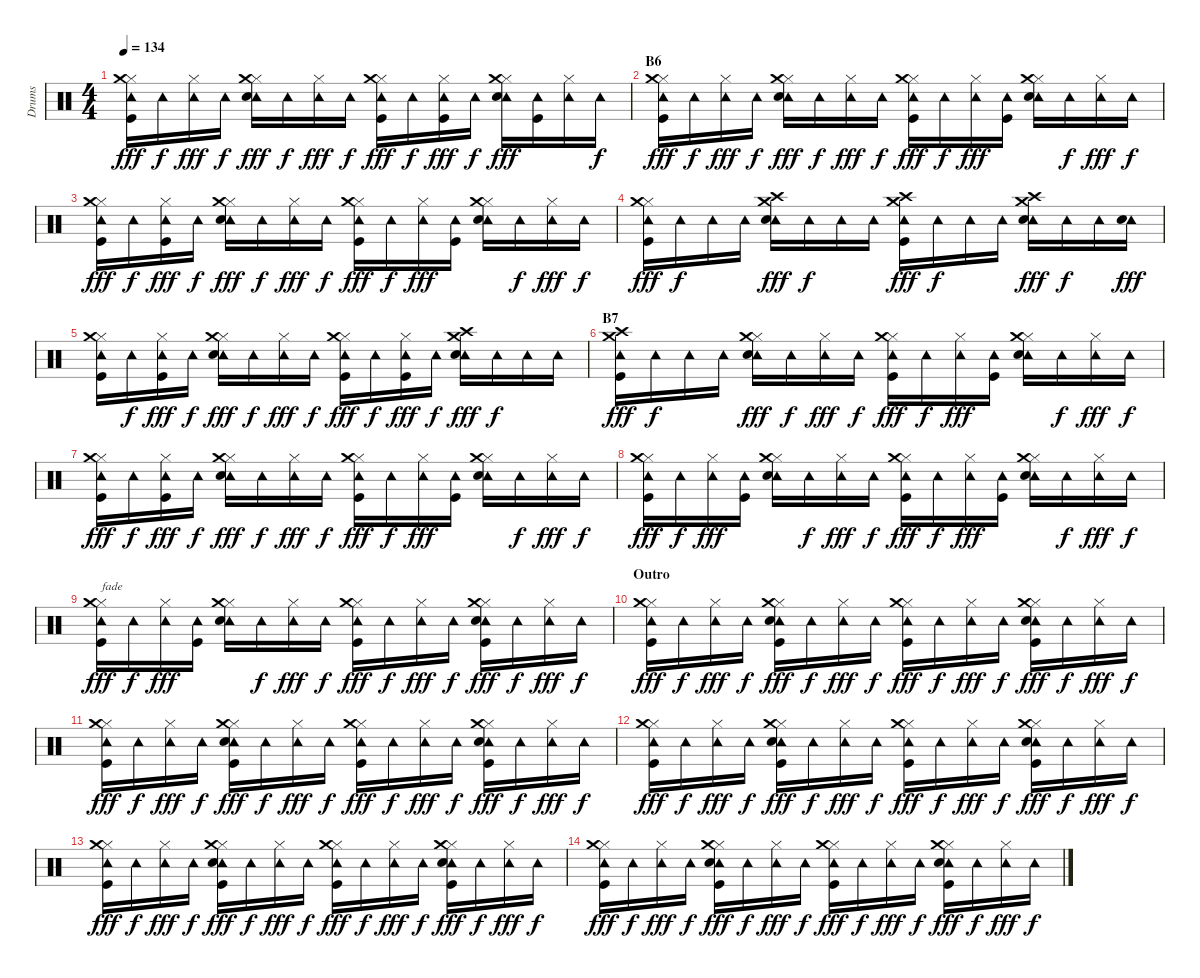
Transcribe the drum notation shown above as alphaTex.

\track ("Drums" "Drums") {instrument percussion}
\staff {score}
\articulation defaults
\ts (4 4)
\tempo 134
\clef neutral
\ks c
("Hi-Hat (closed)" "Tambourine (hit)" "Crash medium (hit)" "Kick (hit)").16{dy fff} "Tambourine (hit)".16{dy f} ("Hi-Hat (closed)" "Tambourine (hit)").16{dy fff} "Tambourine (hit)".16{dy f} ("Hi-Hat (closed)" "Tambourine (hit)" "Crash medium (hit)" "Snare (hit) 2").16{dy fff} "Tambourine (hit)".16{dy f} ("Hi-Hat (closed)" "Tambourine (hit)").16{dy fff} "Tambourine (hit)".16{dy f} ("Hi-Hat (closed)" "Tambourine (hit)" "Crash medium (hit)" "Kick (hit)").16{dy fff} "Tambourine (hit)".16{dy f} ("Hi-Hat (closed)" "Tambourine (hit)" "Kick (hit)").16{dy fff} "Tambourine (hit)".16{dy f} ("Hi-Hat (closed)" "Tambourine (hit)" "Crash medium (hit)" "Snare (hit) 2").16{dy fff} ("Tambourine (hit)" "Kick (hit)").16 ("Hi-Hat (closed)" "Tambourine (hit)").16 "Tambourine (hit)".16{dy f} |
\section ("" "B6")
("Hi-Hat (closed)" "Tambourine (hit)" "Crash medium (hit)" "Kick (hit)").16{dy fff} "Tambourine (hit)".16{dy f} ("Hi-Hat (closed)" "Tambourine (hit)").16{dy fff} "Tambourine (hit)".16{dy f} ("Hi-Hat (closed)" "Tambourine (hit)" "Crash medium (hit)" "Snare (hit) 2").16{dy fff} "Tambourine (hit)".16{dy f} ("Hi-Hat (closed)" "Tambourine (hit)").16{dy fff} "Tambourine (hit)".16{dy f} ("Hi-Hat (closed)" "Tambourine (hit)" "Crash medium (hit)" "Kick (hit)").16{dy fff} "Tambourine (hit)".16{dy f} ("Hi-Hat (closed)" "Tambourine (hit)").16{dy fff} ("Tambourine (hit)" "Kick (hit)").16 ("Hi-Hat (closed)" "Tambourine (hit)" "Crash medium (hit)" "Snare (hit) 2").16 "Tambourine (hit)".16{dy f} ("Hi-Hat (closed)" "Tambourine (hit)").16{dy fff} "Tambourine (hit)".16{dy f} |
("Hi-Hat (closed)" "Tambourine (hit)" "Crash medium (hit)" "Kick (hit)").16{dy fff} "Tambourine (hit)".16{dy f} ("Hi-Hat (closed)" "Tambourine (hit)" "Kick (hit)").16{dy fff} "Tambourine (hit)".16{dy f} ("Hi-Hat (closed)" "Tambourine (hit)" "Crash medium (hit)" "Snare (hit) 2").16{dy fff} "Tambourine (hit)".16{dy f} ("Hi-Hat (closed)" "Tambourine (hit)").16{dy fff} "Tambourine (hit)".16{dy f} ("Hi-Hat (closed)" "Tambourine (hit)" "Crash medium (hit)" "Kick (hit)").16{dy fff} "Tambourine (hit)".16{dy f} ("Hi-Hat (closed)" "Tambourine (hit)").16{dy fff} ("Tambourine (hit)" "Kick (hit)").16 ("Hi-Hat (closed)" "Tambourine (hit)" "Crash medium (hit)" "Snare (hit) 2").16 "Tambourine (hit)".16{dy f} ("Hi-Hat (closed)" "Tambourine (hit)").16{dy fff} "Tambourine (hit)".16{dy f} |
("Hi-Hat (closed)" "Tambourine (hit)" "Crash medium (hit)" "Kick (hit)").16{dy fff} "Tambourine (hit)".16{dy f} "Tambourine (hit)".16 "Tambourine (hit)".16 ("Crash high (hit)" "Tambourine (hit)" "Crash medium (hit)" "Snare (hit) 2").16{dy fff} "Tambourine (hit)".16{dy f} "Tambourine (hit)".16 "Tambourine (hit)".16 ("Crash high (hit)" "Tambourine (hit)" "Crash medium (hit)" "Kick (hit)").16{dy fff} "Tambourine (hit)".16{dy f} "Tambourine (hit)".16 "Tambourine (hit)".16 ("Crash high (hit)" "Tambourine (hit)" "Crash medium (hit)" "Snare (hit) 2").16{dy fff} "Tambourine (hit)".16{dy f} "Tambourine (hit)".16 ("Tambourine (hit)" "Snare (hit) 2").16{dy fff} |
("Hi-Hat (closed)" "Tambourine (hit)" "Crash medium (hit)" "Kick (hit)").16 "Tambourine (hit)".16{dy f} ("Hi-Hat (closed)" "Tambourine (hit)" "Kick (hit)").16{dy fff} "Tambourine (hit)".16{dy f} ("Hi-Hat (closed)" "Tambourine (hit)" "Crash medium (hit)" "Snare (hit) 2").16{dy fff} "Tambourine (hit)".16{dy f} ("Hi-Hat (closed)" "Tambourine (hit)").16{dy fff} "Tambourine (hit)".16{dy f} ("Hi-Hat (closed)" "Tambourine (hit)" "Crash medium (hit)" "Kick (hit)").16{dy fff} "Tambourine (hit)".16{dy f} ("Hi-Hat (closed)" "Tambourine (hit)" "Kick (hit)").16{dy fff} "Tambourine (hit)".16{dy f} ("Crash high (hit)" "Tambourine (hit)" "Crash medium (hit)" "Snare (hit) 2").16{dy fff} "Tambourine (hit)".16{dy f} "Tambourine (hit)".16 "Tambourine (hit)".16 |
\section ("" "B7")
("Crash high (hit)" "Tambourine (hit)" "Crash medium (hit)" "Kick (hit)").16{dy fff} "Tambourine (hit)".16{dy f} "Tambourine (hit)".16 "Tambourine (hit)".16 ("Hi-Hat (closed)" "Tambourine (hit)" "Crash medium (hit)" "Snare (hit) 2").16{dy fff} "Tambourine (hit)".16{dy f} ("Hi-Hat (closed)" "Tambourine (hit)").16{dy fff} "Tambourine (hit)".16{dy f} ("Hi-Hat (closed)" "Tambourine (hit)" "Crash medium (hit)" "Kick (hit)").16{dy fff} "Tambourine (hit)".16{dy f} ("Hi-Hat (closed)" "Tambourine (hit)").16{dy fff} ("Tambourine (hit)" "Kick (hit)").16 ("Hi-Hat (closed)" "Tambourine (hit)" "Crash medium (hit)" "Snare (hit) 2").16 "Tambourine (hit)".16{dy f} ("Hi-Hat (closed)" "Tambourine (hit)").16{dy fff} "Tambourine (hit)".16{dy f} |
("Hi-Hat (closed)" "Tambourine (hit)" "Crash medium (hit)" "Kick (hit)").16{dy fff} "Tambourine (hit)".16{dy f} ("Hi-Hat (closed)" "Tambourine (hit)" "Kick (hit)").16{dy fff} "Tambourine (hit)".16{dy f} ("Hi-Hat (closed)" "Tambourine (hit)" "Crash medium (hit)" "Snare (hit) 2").16{dy fff} "Tambourine (hit)".16{dy f} ("Hi-Hat (closed)" "Tambourine (hit)").16{dy fff} "Tambourine (hit)".16{dy f} ("Hi-Hat (closed)" "Tambourine (hit)" "Crash medium (hit)" "Kick (hit)").16{dy fff} "Tambourine (hit)".16{dy f} ("Hi-Hat (closed)" "Tambourine (hit)").16{dy fff} ("Tambourine (hit)" "Kick (hit)").16 ("Hi-Hat (closed)" "Tambourine (hit)" "Crash medium (hit)" "Snare (hit) 2").16 "Tambourine (hit)".16{dy f} ("Hi-Hat (closed)" "Tambourine (hit)").16{dy fff} "Tambourine (hit)".16{dy f} |
("Hi-Hat (closed)" "Tambourine (hit)" "Crash medium (hit)" "Kick (hit)").16{dy fff} "Tambourine (hit)".16{dy f} ("Hi-Hat (closed)" "Tambourine (hit)").16{dy fff} ("Tambourine (hit)" "Kick (hit)").16 ("Hi-Hat (closed)" "Tambourine (hit)" "Crash medium (hit)" "Snare (hit) 2").16 "Tambourine (hit)".16{dy f} ("Hi-Hat (closed)" "Tambourine (hit)").16{dy fff} "Tambourine (hit)".16{dy f} ("Hi-Hat (closed)" "Tambourine (hit)" "Crash medium (hit)" "Kick (hit)").16{dy fff} "Tambourine (hit)".16{dy f} ("Hi-Hat (closed)" "Tambourine (hit)").16{dy fff} ("Tambourine (hit)" "Kick (hit)").16 ("Hi-Hat (closed)" "Tambourine (hit)" "Crash medium (hit)" "Snare (hit) 2").16 "Tambourine (hit)".16{dy f} ("Hi-Hat (closed)" "Tambourine (hit)").16{dy fff} "Tambourine (hit)".16{dy f} |
("Hi-Hat (closed)" "Tambourine (hit)" "Crash medium (hit)" "Kick (hit)").16{txt "fade" dy fff} "Tambourine (hit)".16{dy f} ("Hi-Hat (closed)" "Tambourine (hit)").16{dy fff} ("Tambourine (hit)" "Kick (hit)").16 ("Hi-Hat (closed)" "Tambourine (hit)" "Crash medium (hit)" "Snare (hit) 2").16 "Tambourine (hit)".16{dy f} ("Hi-Hat (closed)" "Tambourine (hit)").16{dy fff} "Tambourine (hit)".16{dy f} ("Hi-Hat (closed)" "Tambourine (hit)" "Crash medium (hit)" "Kick (hit)").16{dy fff} "Tambourine (hit)".16{dy f} ("Hi-Hat (closed)" "Tambourine (hit)").16{dy fff} "Tambourine (hit)".16{dy f} ("Hi-Hat (closed)" "Tambourine (hit)" "Crash medium (hit)" "Snare (hit) 2" "Kick (hit)").16{dy fff} "Tambourine (hit)".16{dy f} ("Hi-Hat (closed)" "Tambourine (hit)").16{dy fff} "Tambourine (hit)".16{dy f} |
\section ("" "Outro")
("Hi-Hat (closed)" "Tambourine (hit)" "Crash medium (hit)" "Kick (hit)").16{dy fff} "Tambourine (hit)".16{dy f} ("Hi-Hat (closed)" "Tambourine (hit)").16{dy fff} "Tambourine (hit)".16{dy f} ("Hi-Hat (closed)" "Tambourine (hit)" "Crash medium (hit)" "Snare (hit) 2" "Kick (hit)").16{dy fff} "Tambourine (hit)".16{dy f} ("Hi-Hat (closed)" "Tambourine (hit)").16{dy fff} "Tambourine (hit)".16{dy f} ("Hi-Hat (closed)" "Tambourine (hit)" "Crash medium (hit)" "Kick (hit)").16{dy fff} "Tambourine (hit)".16{dy f} ("Hi-Hat (closed)" "Tambourine (hit)").16{dy fff} "Tambourine (hit)".16{dy f} ("Hi-Hat (closed)" "Tambourine (hit)" "Crash medium (hit)" "Snare (hit) 2" "Kick (hit)").16{dy fff} "Tambourine (hit)".16{dy f} ("Hi-Hat (closed)" "Tambourine (hit)").16{dy fff} "Tambourine (hit)".16{dy f} |
("Hi-Hat (closed)" "Tambourine (hit)" "Crash medium (hit)" "Kick (hit)").16{dy fff} "Tambourine (hit)".16{dy f} ("Hi-Hat (closed)" "Tambourine (hit)").16{dy fff} "Tambourine (hit)".16{dy f} ("Hi-Hat (closed)" "Tambourine (hit)" "Crash medium (hit)" "Snare (hit) 2" "Kick (hit)").16{dy fff} "Tambourine (hit)".16{dy f} ("Hi-Hat (closed)" "Tambourine (hit)").16{dy fff} "Tambourine (hit)".16{dy f} ("Hi-Hat (closed)" "Tambourine (hit)" "Crash medium (hit)" "Kick (hit)").16{dy fff} "Tambourine (hit)".16{dy f} ("Hi-Hat (closed)" "Tambourine (hit)").16{dy fff} "Tambourine (hit)".16{dy f} ("Hi-Hat (closed)" "Tambourine (hit)" "Crash medium (hit)" "Snare (hit) 2" "Kick (hit)").16{dy fff} "Tambourine (hit)".16{dy f} ("Hi-Hat (closed)" "Tambourine (hit)").16{dy fff} "Tambourine (hit)".16{dy f} |
("Hi-Hat (closed)" "Tambourine (hit)" "Crash medium (hit)" "Kick (hit)").16{dy fff} "Tambourine (hit)".16{dy f} ("Hi-Hat (closed)" "Tambourine (hit)").16{dy fff} "Tambourine (hit)".16{dy f} ("Hi-Hat (closed)" "Tambourine (hit)" "Crash medium (hit)" "Snare (hit) 2" "Kick (hit)").16{dy fff} "Tambourine (hit)".16{dy f} ("Hi-Hat (closed)" "Tambourine (hit)").16{dy fff} "Tambourine (hit)".16{dy f} ("Hi-Hat (closed)" "Tambourine (hit)" "Crash medium (hit)" "Kick (hit)").16{dy fff} "Tambourine (hit)".16{dy f} ("Hi-Hat (closed)" "Tambourine (hit)").16{dy fff} "Tambourine (hit)".16{dy f} ("Hi-Hat (closed)" "Tambourine (hit)" "Crash medium (hit)" "Snare (hit) 2" "Kick (hit)").16{dy fff} "Tambourine (hit)".16{dy f} ("Hi-Hat (closed)" "Tambourine (hit)").16{dy fff} "Tambourine (hit)".16{dy f} |
("Hi-Hat (closed)" "Tambourine (hit)" "Crash medium (hit)" "Kick (hit)").16{dy fff volume 0} "Tambourine (hit)".16{dy f} ("Hi-Hat (closed)" "Tambourine (hit)").16{dy fff} "Tambourine (hit)".16{dy f} ("Hi-Hat (closed)" "Tambourine (hit)" "Crash medium (hit)" "Snare (hit) 2" "Kick (hit)").16{dy fff} "Tambourine (hit)".16{dy f} ("Hi-Hat (closed)" "Tambourine (hit)").16{dy fff} "Tambourine (hit)".16{dy f} ("Hi-Hat (closed)" "Tambourine (hit)" "Crash medium (hit)" "Kick (hit)").16{dy fff} "Tambourine (hit)".16{dy f} ("Hi-Hat (closed)" "Tambourine (hit)").16{dy fff} "Tambourine (hit)".16{dy f} ("Hi-Hat (closed)" "Tambourine (hit)" "Crash medium (hit)" "Snare (hit) 2" "Kick (hit)").16{dy fff} "Tambourine (hit)".16{dy f} ("Hi-Hat (closed)" "Tambourine (hit)").16{dy fff} "Tambourine (hit)".16{dy f} |
("Hi-Hat (closed)" "Tambourine (hit)" "Crash medium (hit)" "Kick (hit)").16{dy fff} "Tambourine (hit)".16{dy f} ("Hi-Hat (closed)" "Tambourine (hit)").16{dy fff} "Tambourine (hit)".16{dy f} ("Hi-Hat (closed)" "Tambourine (hit)" "Crash medium (hit)" "Snare (hit) 2" "Kick (hit)").16{dy fff} "Tambourine (hit)".16{dy f} ("Hi-Hat (closed)" "Tambourine (hit)").16{dy fff} "Tambourine (hit)".16{dy f} ("Hi-Hat (closed)" "Tambourine (hit)" "Crash medium (hit)" "Kick (hit)").16{dy fff} "Tambourine (hit)".16{dy f} ("Hi-Hat (closed)" "Tambourine (hit)").16{dy fff} "Tambourine (hit)".16{dy f} ("Hi-Hat (closed)" "Tambourine (hit)" "Crash medium (hit)" "Snare (hit) 2" "Kick (hit)").16{dy fff} "Tambourine (hit)".16{dy f} ("Hi-Hat (closed)" "Tambourine (hit)").16{dy fff} "Tambourine (hit)".16{dy f}
